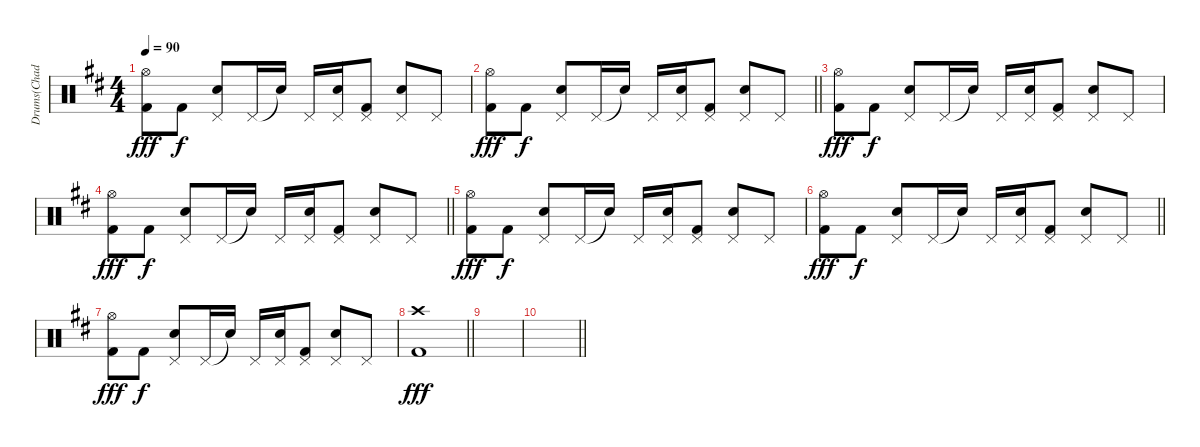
\track ("Drums(Chad Smith)" "Drums(Chad") {instrument percussion}
\staff {score}
\articulation defaults
\ts (4 4)
\tempo 90
\clef neutral
\ks d
("Hi-Hat (open)" "Kick (hit) 2").8{dy fff} "Kick (hit) 2".8{dy f} ("Pedal Hi-Hat (hit)" "Snare (hit) 2").8 "Pedal Hi-Hat (hit)".16 "Snare (hit)"{t}.16 "Pedal Hi-Hat (hit)".16 ("Pedal Hi-Hat (hit)" "Snare (hit) 2").16 ("Pedal Hi-Hat (hit)" "Kick (hit) 2").8 ("Pedal Hi-Hat (hit)" "Snare (hit) 2").8 "Pedal Hi-Hat (hit)".8 |
\barLineRight lightlight
("Hi-Hat (open)" "Kick (hit) 2").8{dy fff} "Kick (hit) 2".8{dy f} ("Pedal Hi-Hat (hit)" "Snare (hit) 2").8 "Pedal Hi-Hat (hit)".16 "Snare (hit)"{t}.16 "Pedal Hi-Hat (hit)".16 ("Pedal Hi-Hat (hit)" "Snare (hit) 2").16 ("Pedal Hi-Hat (hit)" "Kick (hit) 2").8 ("Pedal Hi-Hat (hit)" "Snare (hit) 2").8 "Pedal Hi-Hat (hit)".8 |
("Hi-Hat (open)" "Kick (hit) 2").8{dy fff} "Kick (hit) 2".8{dy f} ("Pedal Hi-Hat (hit)" "Snare (hit) 2").8 "Pedal Hi-Hat (hit)".16 "Snare (hit)"{t}.16 "Pedal Hi-Hat (hit)".16 ("Pedal Hi-Hat (hit)" "Snare (hit) 2").16 ("Pedal Hi-Hat (hit)" "Kick (hit) 2").8 ("Pedal Hi-Hat (hit)" "Snare (hit) 2").8 "Pedal Hi-Hat (hit)".8 |
\barLineRight lightlight
("Hi-Hat (open)" "Kick (hit) 2").8{dy fff} "Kick (hit) 2".8{dy f} ("Pedal Hi-Hat (hit)" "Snare (hit) 2").8 "Pedal Hi-Hat (hit)".16 "Snare (hit)"{t}.16 "Pedal Hi-Hat (hit)".16 ("Pedal Hi-Hat (hit)" "Snare (hit) 2").16 ("Pedal Hi-Hat (hit)" "Kick (hit) 2").8 ("Pedal Hi-Hat (hit)" "Snare (hit) 2").8 "Pedal Hi-Hat (hit)".8 |
("Hi-Hat (open)" "Kick (hit) 2").8{dy fff} "Kick (hit) 2".8{dy f} ("Pedal Hi-Hat (hit)" "Snare (hit) 2").8 "Pedal Hi-Hat (hit)".16 "Snare (hit)"{t}.16 "Pedal Hi-Hat (hit)".16 ("Pedal Hi-Hat (hit)" "Snare (hit) 2").16 ("Pedal Hi-Hat (hit)" "Kick (hit) 2").8 ("Pedal Hi-Hat (hit)" "Snare (hit) 2").8 "Pedal Hi-Hat (hit)".8 |
\barLineRight lightlight
("Hi-Hat (open)" "Kick (hit) 2").8{dy fff} "Kick (hit) 2".8{dy f} ("Pedal Hi-Hat (hit)" "Snare (hit) 2").8 "Pedal Hi-Hat (hit)".16 "Snare (hit)"{t}.16 "Pedal Hi-Hat (hit)".16 ("Pedal Hi-Hat (hit)" "Snare (hit) 2").16 ("Pedal Hi-Hat (hit)" "Kick (hit) 2").8 ("Pedal Hi-Hat (hit)" "Snare (hit) 2").8 "Pedal Hi-Hat (hit)".8 |
("Hi-Hat (open)" "Kick (hit) 2").8{dy fff} "Kick (hit) 2".8{dy f} ("Pedal Hi-Hat (hit)" "Snare (hit) 2").8 "Pedal Hi-Hat (hit)".16 "Snare (hit)"{t}.16 "Pedal Hi-Hat (hit)".16 ("Pedal Hi-Hat (hit)" "Snare (hit) 2").16 ("Pedal Hi-Hat (hit)" "Kick (hit) 2").8 ("Pedal Hi-Hat (hit)" "Snare (hit) 2").8 "Pedal Hi-Hat (hit)".8 |
\barLineRight lightlight
("Crash high (hit)" "Kick (hit) 2").1{dy fff} |
|
\barLineRight lightlight
